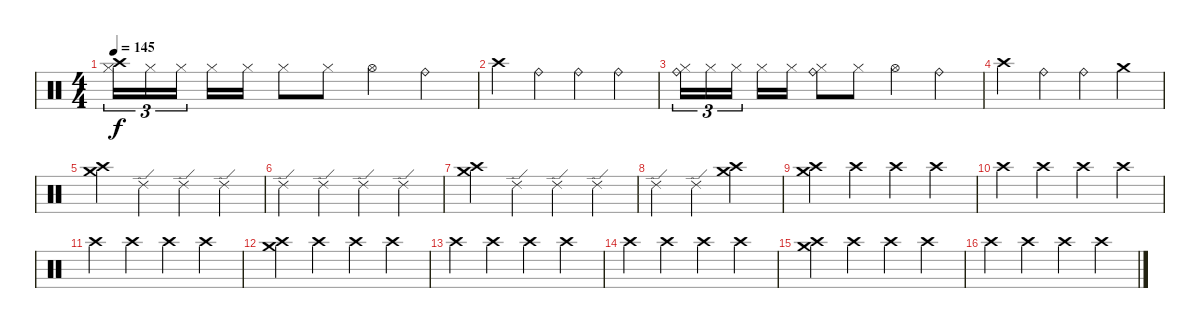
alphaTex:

\track "" {instrument percussion}
\staff {score}
\articulation defaults
\ts (4 4)
\tempo 145
\clef neutral
\ks c
("Crash high (hit)" "Hi-Hat (closed)").16{tu (3 2) dy f} "Hi-Hat (closed)".16{tu (3 2)} "Hi-Hat (closed)".16{tu (3 2)} "Hi-Hat (closed)".16 "Hi-Hat (closed)".16 "Hi-Hat (closed)".8 "Hi-Hat (closed)".8 "Hi-Hat (open)".4 "Ride (bell)".4 |
"Crash high (hit)".4 "Ride (bell)".4 "Ride (bell)".4 "Ride (bell)".4 |
("Ride (bell)" "Hi-Hat (closed)").16{tu (3 2)} "Hi-Hat (closed)".16{tu (3 2)} "Hi-Hat (closed)".16{tu (3 2)} "Hi-Hat (closed)".16 "Hi-Hat (closed)".16 ("Ride (bell)" "Hi-Hat (closed)").8 "Hi-Hat (closed)".8 "Hi-Hat (open)".4 "Ride (bell)".4 |
"Crash high (hit)".4 "Ride (bell)".4 "Ride (bell)".4 "Crash medium (hit)".4 |
("Crash medium (hit)" "Crash high (hit)").4 "Ride (edge) 2".4 "Ride (edge) 2".4 "Ride (edge) 2".4 |
"Ride (edge) 2".4 "Ride (edge) 2".4 "Ride (edge) 2".4 "Ride (edge) 2".4 |
("Crash medium (hit)" "Crash high (hit)").4 "Ride (edge) 2".4 "Ride (edge) 2".4 "Ride (edge) 2".4 |
"Ride (edge) 2".4 "Ride (edge) 2".4 ("Crash medium (hit)" "Crash high (hit)").2 |
("Crash medium (hit)" "Crash high (hit)").4 "Crash high (hit)".4 "Crash high (hit)".4 "Crash high (hit)".4 |
"Crash high (hit)".4 "Crash high (hit)".4 "Crash high (hit)".4 "Crash high (hit)".4 |
"Crash high (hit)".4 "Crash high (hit)".4 "Crash high (hit)".4 "Crash high (hit)".4 |
("Crash medium (hit)" "Crash high (hit)").4 "Crash high (hit)".4 "Crash high (hit)".4 "Crash high (hit)".4 |
"Crash high (hit)".4 "Crash high (hit)".4 "Crash high (hit)".4 "Crash high (hit)".4 |
"Crash high (hit)".4 "Crash high (hit)".4 "Crash high (hit)".4 "Crash high (hit)".4 |
("Crash medium (hit)" "Crash high (hit)").4 "Crash high (hit)".4 "Crash high (hit)".4 "Crash high (hit)".4 |
"Crash high (hit)".4 "Crash high (hit)".4 "Crash high (hit)".4 "Crash high (hit)".4
